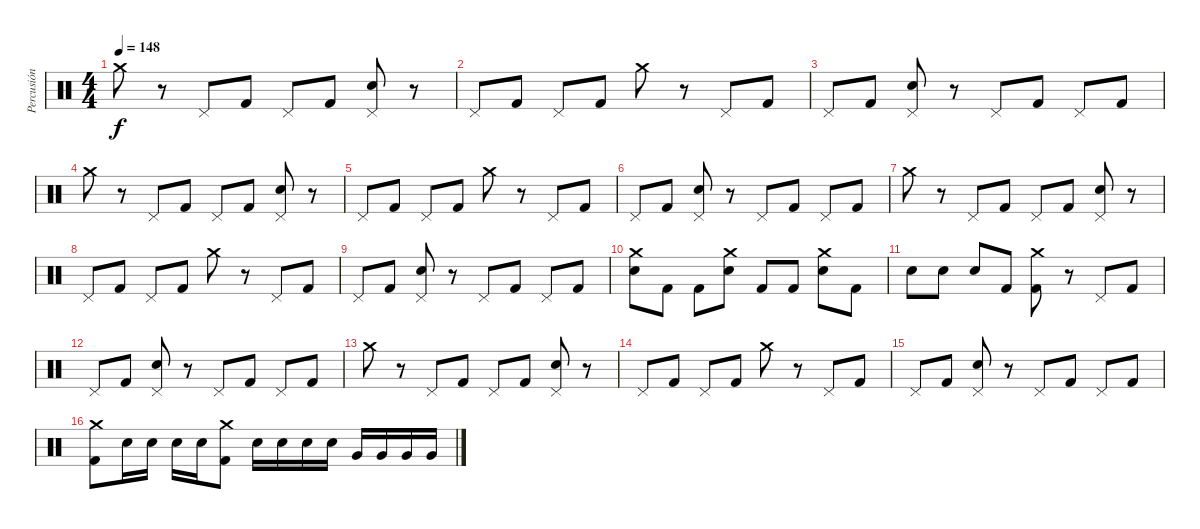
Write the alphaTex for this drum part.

\track ("Percusión" "Percusión") {instrument percussion}
\staff {score}
\articulation defaults
\ts (4 4)
\tempo 148
\clef neutral
\ks c "Crash medium (hit)".8{dy f}
r.8 "Pedal Hi-Hat (hit)".8 "Kick (hit) 2".8 "Pedal Hi-Hat (hit)".8 "Kick (hit) 2".8 ("Pedal Hi-Hat (hit)" "Snare (hit) 2").8 r.8 |
"Pedal Hi-Hat (hit)".8 "Kick (hit) 2".8 "Pedal Hi-Hat (hit)".8 "Kick (hit) 2".8 "Crash medium (hit)".8 r.8 "Pedal Hi-Hat (hit)".8 "Kick (hit) 2".8 |
"Pedal Hi-Hat (hit)".8 "Kick (hit) 2".8 ("Pedal Hi-Hat (hit)" "Snare (hit) 2").8 r.8 "Pedal Hi-Hat (hit)".8 "Kick (hit) 2".8 "Pedal Hi-Hat (hit)".8 "Kick (hit) 2".8 |
"Crash medium (hit)".8 r.8 "Pedal Hi-Hat (hit)".8 "Kick (hit) 2".8 "Pedal Hi-Hat (hit)".8 "Kick (hit) 2".8 ("Pedal Hi-Hat (hit)" "Snare (hit) 2").8 r.8 |
"Pedal Hi-Hat (hit)".8 "Kick (hit) 2".8 "Pedal Hi-Hat (hit)".8 "Kick (hit) 2".8 "Crash medium (hit)".8 r.8 "Pedal Hi-Hat (hit)".8 "Kick (hit) 2".8 |
"Pedal Hi-Hat (hit)".8 "Kick (hit) 2".8 ("Pedal Hi-Hat (hit)" "Snare (hit) 2").8 r.8 "Pedal Hi-Hat (hit)".8 "Kick (hit) 2".8 "Pedal Hi-Hat (hit)".8 "Kick (hit) 2".8 |
"Crash medium (hit)".8 r.8 "Pedal Hi-Hat (hit)".8 "Kick (hit) 2".8 "Pedal Hi-Hat (hit)".8 "Kick (hit) 2".8 ("Pedal Hi-Hat (hit)" "Snare (hit) 2").8 r.8 |
"Pedal Hi-Hat (hit)".8 "Kick (hit) 2".8 "Pedal Hi-Hat (hit)".8 "Kick (hit) 2".8 "Crash medium (hit)".8 r.8 "Pedal Hi-Hat (hit)".8 "Kick (hit) 2".8 |
"Pedal Hi-Hat (hit)".8 "Kick (hit) 2".8 ("Pedal Hi-Hat (hit)" "Snare (hit) 2").8 r.8 "Pedal Hi-Hat (hit)".8 "Kick (hit) 2".8 "Pedal Hi-Hat (hit)".8 "Kick (hit) 2".8 |
("Crash medium (hit)" "Snare (hit) 2").8 "Kick (hit) 2".8 "Kick (hit) 2".8 ("Crash medium (hit)" "Snare (hit) 2").8 "Kick (hit) 2".8 "Kick (hit) 2".8 ("Crash medium (hit)" "Snare (hit) 2").8 "Kick (hit) 2".8 |
"Snare (hit) 2".8 "Snare (hit) 2".8 "Snare (hit) 2".8 "Kick (hit) 2".8 ("Crash medium (hit)" "Kick (hit) 2").8 r.8 "Pedal Hi-Hat (hit)".8 "Kick (hit) 2".8 |
"Pedal Hi-Hat (hit)".8 "Kick (hit) 2".8 ("Pedal Hi-Hat (hit)" "Snare (hit) 2").8 r.8 "Pedal Hi-Hat (hit)".8 "Kick (hit) 2".8 "Pedal Hi-Hat (hit)".8 "Kick (hit) 2".8 |
"Crash medium (hit)".8 r.8 "Pedal Hi-Hat (hit)".8 "Kick (hit) 2".8 "Pedal Hi-Hat (hit)".8 "Kick (hit) 2".8 ("Pedal Hi-Hat (hit)" "Snare (hit) 2").8 r.8 |
"Pedal Hi-Hat (hit)".8 "Kick (hit) 2".8 "Pedal Hi-Hat (hit)".8 "Kick (hit) 2".8 "Crash medium (hit)".8 r.8 "Pedal Hi-Hat (hit)".8 "Kick (hit) 2".8 |
"Pedal Hi-Hat (hit)".8 "Kick (hit) 2".8 ("Pedal Hi-Hat (hit)" "Snare (hit) 2").8 r.8 "Pedal Hi-Hat (hit)".8 "Kick (hit) 2".8 "Pedal Hi-Hat (hit)".8 "Kick (hit) 2".8 |
("Crash medium (hit)" "Kick (hit) 2").8 "Snare (hit) 2".16 "Snare (hit) 2".16 "Snare (hit) 2".16 "Snare (hit) 2".16 ("Crash medium (hit)" "Kick (hit) 2").8 "Snare (hit) 2".16 "Snare (hit) 2".16 "Snare (hit) 2".16 "Snare (hit) 2".16 "Very Low Tom (hit)".16 "Very Low Tom (hit)".16 "Very Low Tom (hit)".16 "Very Low Tom (hit)".16
